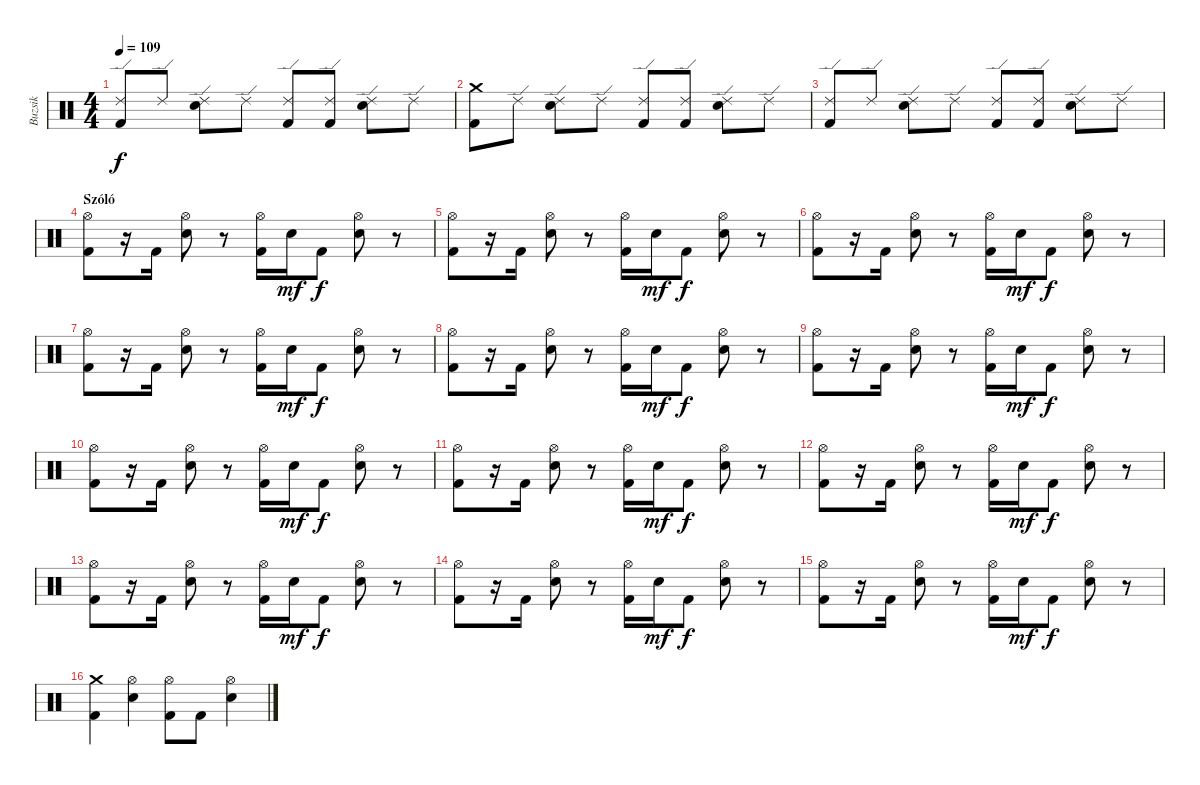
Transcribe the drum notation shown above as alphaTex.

\track ("Buzsik" "Buzsik") {instrument percussion}
\staff {score}
\articulation defaults
\ts (4 4)
\tempo 109
\clef neutral
\ks c
("Ride (edge) 2" "Kick (hit) 2").8{dy f} "Ride (edge) 2".8 ("Ride (edge) 2" "Electric Snare (hit)").8 "Ride (edge) 2".8 ("Ride (edge) 2" "Kick (hit) 2").8 ("Ride (edge) 2" "Kick (hit) 2").8 ("Ride (edge) 2" "Electric Snare (hit)").8 "Ride (edge) 2".8 |
("Crash medium (hit)" "Kick (hit) 2").8 "Ride (edge) 2".8 ("Ride (edge) 2" "Electric Snare (hit)").8 "Ride (edge) 2".8 ("Ride (edge) 2" "Kick (hit) 2").8 ("Ride (edge) 2" "Kick (hit) 2").8 ("Ride (edge) 2" "Electric Snare (hit)").8 "Ride (edge) 2".8 |
("Ride (edge) 2" "Kick (hit) 2").8 "Ride (edge) 2".8 ("Ride (edge) 2" "Electric Snare (hit)").8 "Ride (edge) 2".8 ("Ride (edge) 2" "Kick (hit) 2").8 ("Ride (edge) 2" "Kick (hit) 2").8 ("Ride (edge) 2" "Electric Snare (hit)").8 "Ride (edge) 2".8 |
\section ("" "Szóló")
("Hi-Hat (open)" "Kick (hit) 2").8 r.16 "Kick (hit) 2".16 ("Hi-Hat (open)" "Electric Snare (hit)").8 r.8 ("Hi-Hat (open)" "Kick (hit) 2").16 "Electric Snare (hit)".16{dy mf} "Kick (hit) 2".8{dy f} ("Hi-Hat (open)" "Electric Snare (hit)").8 r.8 |
("Hi-Hat (open)" "Kick (hit) 2").8 r.16 "Kick (hit) 2".16 ("Hi-Hat (open)" "Electric Snare (hit)").8 r.8 ("Hi-Hat (open)" "Kick (hit) 2").16 "Electric Snare (hit)".16{dy mf} "Kick (hit) 2".8{dy f} ("Hi-Hat (open)" "Electric Snare (hit)").8 r.8 |
("Hi-Hat (open)" "Kick (hit) 2").8 r.16 "Kick (hit) 2".16 ("Hi-Hat (open)" "Electric Snare (hit)").8 r.8 ("Hi-Hat (open)" "Kick (hit) 2").16 "Electric Snare (hit)".16{dy mf} "Kick (hit) 2".8{dy f} ("Hi-Hat (open)" "Electric Snare (hit)").8 r.8 |
("Hi-Hat (open)" "Kick (hit) 2").8 r.16 "Kick (hit) 2".16 ("Hi-Hat (open)" "Electric Snare (hit)").8 r.8 ("Hi-Hat (open)" "Kick (hit) 2").16 "Electric Snare (hit)".16{dy mf} "Kick (hit) 2".8{dy f} ("Hi-Hat (open)" "Electric Snare (hit)").8 r.8 |
("Hi-Hat (open)" "Kick (hit) 2").8 r.16 "Kick (hit) 2".16 ("Hi-Hat (open)" "Electric Snare (hit)").8 r.8 ("Hi-Hat (open)" "Kick (hit) 2").16 "Electric Snare (hit)".16{dy mf} "Kick (hit) 2".8{dy f} ("Hi-Hat (open)" "Electric Snare (hit)").8 r.8 |
("Hi-Hat (open)" "Kick (hit) 2").8 r.16 "Kick (hit) 2".16 ("Hi-Hat (open)" "Electric Snare (hit)").8 r.8 ("Hi-Hat (open)" "Kick (hit) 2").16 "Electric Snare (hit)".16{dy mf} "Kick (hit) 2".8{dy f} ("Hi-Hat (open)" "Electric Snare (hit)").8 r.8 |
("Hi-Hat (open)" "Kick (hit) 2").8 r.16 "Kick (hit) 2".16 ("Hi-Hat (open)" "Electric Snare (hit)").8 r.8 ("Hi-Hat (open)" "Kick (hit) 2").16 "Electric Snare (hit)".16{dy mf} "Kick (hit) 2".8{dy f} ("Hi-Hat (open)" "Electric Snare (hit)").8 r.8 |
("Hi-Hat (open)" "Kick (hit) 2").8 r.16 "Kick (hit) 2".16 ("Hi-Hat (open)" "Electric Snare (hit)").8 r.8 ("Hi-Hat (open)" "Kick (hit) 2").16 "Electric Snare (hit)".16{dy mf} "Kick (hit) 2".8{dy f} ("Hi-Hat (open)" "Electric Snare (hit)").8 r.8 |
("Hi-Hat (open)" "Kick (hit) 2").8 r.16 "Kick (hit) 2".16 ("Hi-Hat (open)" "Electric Snare (hit)").8 r.8 ("Hi-Hat (open)" "Kick (hit) 2").16 "Electric Snare (hit)".16{dy mf} "Kick (hit) 2".8{dy f} ("Hi-Hat (open)" "Electric Snare (hit)").8 r.8 |
("Hi-Hat (open)" "Kick (hit) 2").8 r.16 "Kick (hit) 2".16 ("Hi-Hat (open)" "Electric Snare (hit)").8 r.8 ("Hi-Hat (open)" "Kick (hit) 2").16 "Electric Snare (hit)".16{dy mf} "Kick (hit) 2".8{dy f} ("Hi-Hat (open)" "Electric Snare (hit)").8 r.8 |
("Hi-Hat (open)" "Kick (hit) 2").8 r.16 "Kick (hit) 2".16 ("Hi-Hat (open)" "Electric Snare (hit)").8 r.8 ("Hi-Hat (open)" "Kick (hit) 2").16 "Electric Snare (hit)".16{dy mf} "Kick (hit) 2".8{dy f} ("Hi-Hat (open)" "Electric Snare (hit)").8 r.8 |
("Hi-Hat (open)" "Kick (hit) 2").8 r.16 "Kick (hit) 2".16 ("Hi-Hat (open)" "Electric Snare (hit)").8 r.8 ("Hi-Hat (open)" "Kick (hit) 2").16 "Electric Snare (hit)".16{dy mf} "Kick (hit) 2".8{dy f} ("Hi-Hat (open)" "Electric Snare (hit)").8 r.8 |
("Crash medium (hit)" "Kick (hit) 2").4 ("Hi-Hat (open)" "Electric Snare (hit)").4 ("Hi-Hat (open)" "Kick (hit) 2").8 "Kick (hit) 2".8 ("Hi-Hat (open)" "Electric Snare (hit)").4
